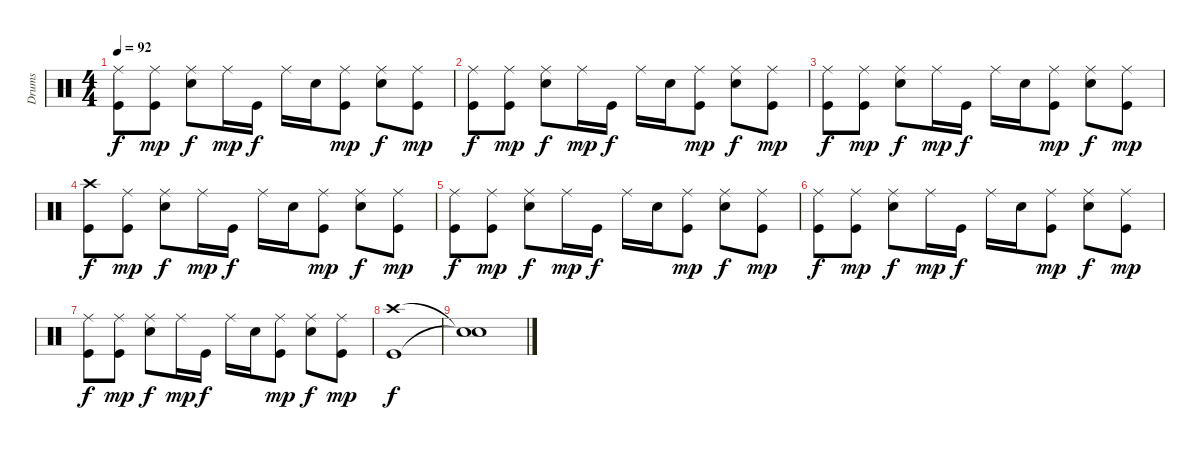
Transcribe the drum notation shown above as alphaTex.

\track ("Drums" "Drums") {instrument percussion}
\staff {score}
\articulation defaults
\ts (4 4)
\tempo 92
\clef neutral
\ks c
("Ride (middle)" "Kick (hit)").8{dy f} ("Ride (middle)" "Kick (hit)").8{dy mp} ("Ride (middle)" "Snare (hit) 2").8{dy f} "Ride (middle)".16{dy mp} "Kick (hit)".16{dy f} "Ride (middle)".16 "Snare (hit) 2".16 ("Ride (middle)" "Kick (hit)").8{dy mp} ("Ride (middle)" "Snare (hit) 2").8{dy f} ("Ride (middle)" "Kick (hit)").8{dy mp} |
("Ride (middle)" "Kick (hit)").8{dy f} ("Ride (middle)" "Kick (hit)").8{dy mp} ("Ride (middle)" "Snare (hit) 2").8{dy f} "Ride (middle)".16{dy mp} "Kick (hit)".16{dy f} "Ride (middle)".16 "Snare (hit) 2".16 ("Ride (middle)" "Kick (hit)").8{dy mp} ("Ride (middle)" "Snare (hit) 2").8{dy f} ("Ride (middle)" "Kick (hit)").8{dy mp} |
("Ride (middle)" "Kick (hit)").8{dy f} ("Ride (middle)" "Kick (hit)").8{dy mp} ("Ride (middle)" "Snare (hit) 2").8{dy f} "Ride (middle)".16{dy mp} "Kick (hit)".16{dy f} "Ride (middle)".16 "Snare (hit) 2".16 ("Ride (middle)" "Kick (hit)").8{dy mp} ("Ride (middle)" "Snare (hit) 2").8{dy f} ("Ride (middle)" "Kick (hit)").8{dy mp} |
("Crash high (hit)" "Kick (hit)").8{dy f} ("Ride (middle)" "Kick (hit)").8{dy mp} ("Ride (middle)" "Snare (hit) 2").8{dy f} "Ride (middle)".16{dy mp} "Kick (hit)".16{dy f} "Ride (middle)".16 "Snare (hit) 2".16 ("Ride (middle)" "Kick (hit)").8{dy mp} ("Ride (middle)" "Snare (hit) 2").8{dy f} ("Ride (middle)" "Kick (hit)").8{dy mp} |
("Ride (middle)" "Kick (hit)").8{dy f} ("Ride (middle)" "Kick (hit)").8{dy mp} ("Ride (middle)" "Snare (hit) 2").8{dy f} "Ride (middle)".16{dy mp} "Kick (hit)".16{dy f} "Ride (middle)".16 "Snare (hit) 2".16 ("Ride (middle)" "Kick (hit)").8{dy mp} ("Ride (middle)" "Snare (hit) 2").8{dy f} ("Ride (middle)" "Kick (hit)").8{dy mp} |
("Ride (middle)" "Kick (hit)").8{dy f} ("Ride (middle)" "Kick (hit)").8{dy mp} ("Ride (middle)" "Snare (hit) 2").8{dy f} "Ride (middle)".16{dy mp} "Kick (hit)".16{dy f} "Ride (middle)".16 "Snare (hit) 2".16 ("Ride (middle)" "Kick (hit)").8{dy mp} ("Ride (middle)" "Snare (hit) 2").8{dy f} ("Ride (middle)" "Kick (hit)").8{dy mp} |
("Ride (middle)" "Kick (hit)").8{dy f} ("Ride (middle)" "Kick (hit)").8{dy mp} ("Ride (middle)" "Snare (hit) 2").8{dy f} "Ride (middle)".16{dy mp} "Kick (hit)".16{dy f} "Ride (middle)".16 "Snare (hit) 2".16 ("Ride (middle)" "Kick (hit)").8{dy mp} ("Ride (middle)" "Snare (hit) 2").8{dy f} ("Ride (middle)" "Kick (hit)").8{dy mp} |
("Crash high (hit)" "Kick (hit)").1{dy f} |
("Snare (hit)"{t} "Snare (hit)"{t}).1
